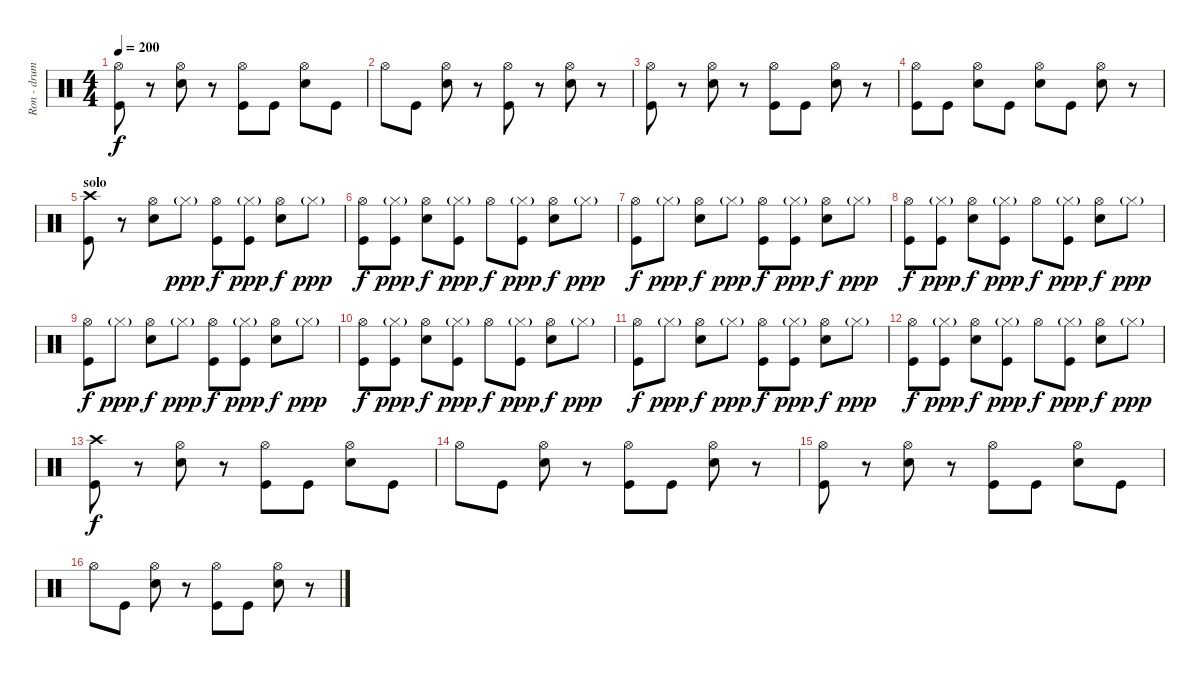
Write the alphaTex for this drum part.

\track ("Ron - drums" "Ron - drum") {instrument percussion}
\staff {score}
\articulation defaults
\ts (4 4)
\tempo 200
\clef neutral
\ks c
("Hi-Hat (open)" "Kick (hit)").8{dy f} r.8 ("Hi-Hat (open)" "Snare (hit) 2").8 r.8 ("Hi-Hat (open)" "Kick (hit)").8 "Kick (hit)".8 ("Hi-Hat (open)" "Snare (hit) 2").8 "Kick (hit)".8 |
"Hi-Hat (open)".8 "Kick (hit)".8 ("Hi-Hat (open)" "Snare (hit) 2").8 r.8 ("Hi-Hat (open)" "Kick (hit)").8 r.8 ("Hi-Hat (open)" "Snare (hit) 2").8 r.8 |
("Hi-Hat (open)" "Kick (hit)").8 r.8 ("Hi-Hat (open)" "Snare (hit) 2").8 r.8 ("Hi-Hat (open)" "Kick (hit)").8 "Kick (hit)".8 ("Hi-Hat (open)" "Snare (hit) 2").8 r.8 |
("Hi-Hat (open)" "Kick (hit)").8 "Kick (hit)".8 ("Hi-Hat (open)" "Snare (hit) 2").8 "Kick (hit)".8 ("Hi-Hat (open)" "Snare (hit) 2").8 "Kick (hit)".8 ("Hi-Hat (open)" "Snare (hit) 2").8 r.8 |
\section ("" "solo")
("Crash high (hit)" "Kick (hit)").8 r.8 ("Hi-Hat (open)" "Snare (hit) 2").8 "Hi-Hat (closed)"{g}.8{dy ppp} ("Hi-Hat (open)" "Kick (hit)").8{dy f} ("Hi-Hat (closed)"{g} "Kick (hit)").8{dy ppp} ("Hi-Hat (open)" "Snare (hit) 2").8{dy f} "Hi-Hat (closed)"{g}.8{dy ppp} |
("Hi-Hat (open)" "Kick (hit)").8{dy f} ("Hi-Hat (closed)"{g} "Kick (hit)").8{dy ppp} ("Hi-Hat (open)" "Snare (hit) 2").8{dy f} ("Hi-Hat (closed)"{g} "Kick (hit)").8{dy ppp} "Hi-Hat (open)".8{dy f} ("Hi-Hat (closed)"{g} "Kick (hit)").8{dy ppp} ("Hi-Hat (open)" "Snare (hit) 2").8{dy f} "Hi-Hat (closed)"{g}.8{dy ppp} |
("Hi-Hat (open)" "Kick (hit)").8{dy f} "Hi-Hat (closed)"{g}.8{dy ppp} ("Hi-Hat (open)" "Snare (hit) 2").8{dy f} "Hi-Hat (closed)"{g}.8{dy ppp} ("Hi-Hat (open)" "Kick (hit)").8{dy f} ("Hi-Hat (closed)"{g} "Kick (hit)").8{dy ppp} ("Hi-Hat (open)" "Snare (hit) 2").8{dy f} "Hi-Hat (closed)"{g}.8{dy ppp} |
("Hi-Hat (open)" "Kick (hit)").8{dy f} ("Hi-Hat (closed)"{g} "Kick (hit)").8{dy ppp} ("Hi-Hat (open)" "Snare (hit) 2").8{dy f} ("Hi-Hat (closed)"{g} "Kick (hit)").8{dy ppp} "Hi-Hat (open)".8{dy f} ("Hi-Hat (closed)"{g} "Kick (hit)").8{dy ppp} ("Hi-Hat (open)" "Snare (hit) 2").8{dy f} "Hi-Hat (closed)"{g}.8{dy ppp} |
("Hi-Hat (open)" "Kick (hit)").8{dy f} "Hi-Hat (closed)"{g}.8{dy ppp} ("Hi-Hat (open)" "Snare (hit) 2").8{dy f} "Hi-Hat (closed)"{g}.8{dy ppp} ("Hi-Hat (open)" "Kick (hit)").8{dy f} ("Hi-Hat (closed)"{g} "Kick (hit)").8{dy ppp} ("Hi-Hat (open)" "Snare (hit) 2").8{dy f} "Hi-Hat (closed)"{g}.8{dy ppp} |
("Hi-Hat (open)" "Kick (hit)").8{dy f} ("Hi-Hat (closed)"{g} "Kick (hit)").8{dy ppp} ("Hi-Hat (open)" "Snare (hit) 2").8{dy f} ("Hi-Hat (closed)"{g} "Kick (hit)").8{dy ppp} "Hi-Hat (open)".8{dy f} ("Hi-Hat (closed)"{g} "Kick (hit)").8{dy ppp} ("Hi-Hat (open)" "Snare (hit) 2").8{dy f} "Hi-Hat (closed)"{g}.8{dy ppp} |
("Hi-Hat (open)" "Kick (hit)").8{dy f} "Hi-Hat (closed)"{g}.8{dy ppp} ("Hi-Hat (open)" "Snare (hit) 2").8{dy f} "Hi-Hat (closed)"{g}.8{dy ppp} ("Hi-Hat (open)" "Kick (hit)").8{dy f} ("Hi-Hat (closed)"{g} "Kick (hit)").8{dy ppp} ("Hi-Hat (open)" "Snare (hit) 2").8{dy f} "Hi-Hat (closed)"{g}.8{dy ppp} |
("Hi-Hat (open)" "Kick (hit)").8{dy f} ("Hi-Hat (closed)"{g} "Kick (hit)").8{dy ppp} ("Hi-Hat (open)" "Snare (hit) 2").8{dy f} ("Hi-Hat (closed)"{g} "Kick (hit)").8{dy ppp} "Hi-Hat (open)".8{dy f} ("Hi-Hat (closed)"{g} "Kick (hit)").8{dy ppp} ("Hi-Hat (open)" "Snare (hit) 2").8{dy f} "Hi-Hat (closed)"{g}.8{dy ppp} |
("Crash high (hit)" "Kick (hit)").8{dy f} r.8 ("Hi-Hat (open)" "Snare (hit) 2").8 r.8 ("Hi-Hat (open)" "Kick (hit)").8 "Kick (hit)".8 ("Hi-Hat (open)" "Snare (hit) 2").8 "Kick (hit)".8 |
"Hi-Hat (open)".8 "Kick (hit)".8 ("Hi-Hat (open)" "Snare (hit) 2").8 r.8 ("Hi-Hat (open)" "Kick (hit)").8 "Kick (hit)".8 ("Hi-Hat (open)" "Snare (hit) 2").8 r.8 |
("Hi-Hat (open)" "Kick (hit)").8 r.8 ("Hi-Hat (open)" "Snare (hit) 2").8 r.8 ("Hi-Hat (open)" "Kick (hit)").8 "Kick (hit)".8 ("Hi-Hat (open)" "Snare (hit) 2").8 "Kick (hit)".8 |
"Hi-Hat (open)".8 "Kick (hit)".8 ("Hi-Hat (open)" "Snare (hit) 2").8 r.8 ("Hi-Hat (open)" "Kick (hit)").8 "Kick (hit)".8 ("Hi-Hat (open)" "Snare (hit) 2").8 r.8
